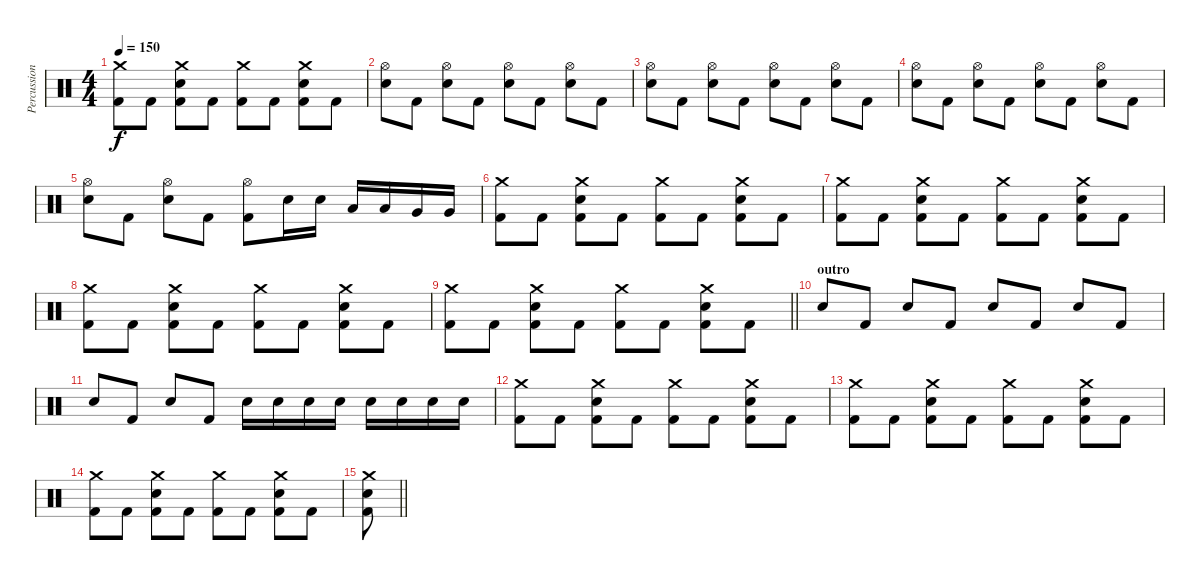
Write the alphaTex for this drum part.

\track ("Percussion" "Percussion") {instrument percussion}
\staff {score}
\articulation defaults
\ts (4 4)
\tempo 150
\clef neutral
\ks c
("Crash medium (hit)" "Kick (hit) 2").8{dy f} "Kick (hit) 2".8 ("Crash medium (hit)" "Snare (hit) 2" "Kick (hit) 2").8 "Kick (hit) 2".8 ("Crash medium (hit)" "Kick (hit) 2").8 "Kick (hit) 2".8 ("Crash medium (hit)" "Snare (hit) 2" "Kick (hit) 2").8 "Kick (hit) 2".8 |
("Hi-Hat (open)" "Snare (hit) 2").8 "Kick (hit) 2".8 ("Hi-Hat (open)" "Snare (hit) 2").8 "Kick (hit) 2".8 ("Hi-Hat (open)" "Snare (hit) 2").8 "Kick (hit) 2".8 ("Hi-Hat (open)" "Snare (hit) 2").8 "Kick (hit) 2".8 |
("Hi-Hat (open)" "Snare (hit) 2").8 "Kick (hit) 2".8 ("Hi-Hat (open)" "Snare (hit) 2").8 "Kick (hit) 2".8 ("Hi-Hat (open)" "Snare (hit) 2").8 "Kick (hit) 2".8 ("Hi-Hat (open)" "Snare (hit) 2").8 "Kick (hit) 2".8 |
("Hi-Hat (open)" "Snare (hit) 2").8 "Kick (hit) 2".8 ("Hi-Hat (open)" "Snare (hit) 2").8 "Kick (hit) 2".8 ("Hi-Hat (open)" "Snare (hit) 2").8 "Kick (hit) 2".8 ("Hi-Hat (open)" "Snare (hit) 2").8 "Kick (hit) 2".8 |
("Hi-Hat (open)" "Snare (hit) 2").8 "Kick (hit) 2".8 ("Hi-Hat (open)" "Snare (hit) 2").8 "Kick (hit) 2".8 ("Hi-Hat (open)" "Kick (hit) 2").8 "Snare (hit) 2".16 "Snare (hit) 2".16 "Low Tom (hit)".16 "Low Tom (hit)".16 "Very Low Tom (hit)".16 "Very Low Tom (hit)".16 |
("Crash medium (hit)" "Kick (hit) 2").8 "Kick (hit) 2".8 ("Crash medium (hit)" "Snare (hit) 2" "Kick (hit) 2").8 "Kick (hit) 2".8 ("Crash medium (hit)" "Kick (hit) 2").8 "Kick (hit) 2".8 ("Crash medium (hit)" "Snare (hit) 2" "Kick (hit) 2").8 "Kick (hit) 2".8 |
("Crash medium (hit)" "Kick (hit) 2").8 "Kick (hit) 2".8 ("Crash medium (hit)" "Snare (hit) 2" "Kick (hit) 2").8 "Kick (hit) 2".8 ("Crash medium (hit)" "Kick (hit) 2").8 "Kick (hit) 2".8 ("Crash medium (hit)" "Snare (hit) 2" "Kick (hit) 2").8 "Kick (hit) 2".8 |
("Crash medium (hit)" "Kick (hit) 2").8 "Kick (hit) 2".8 ("Crash medium (hit)" "Snare (hit) 2" "Kick (hit) 2").8 "Kick (hit) 2".8 ("Crash medium (hit)" "Kick (hit) 2").8 "Kick (hit) 2".8 ("Crash medium (hit)" "Snare (hit) 2" "Kick (hit) 2").8 "Kick (hit) 2".8 |
\barLineRight lightlight
("Crash medium (hit)" "Kick (hit) 2").8 "Kick (hit) 2".8 ("Crash medium (hit)" "Snare (hit) 2" "Kick (hit) 2").8 "Kick (hit) 2".8 ("Crash medium (hit)" "Kick (hit) 2").8 "Kick (hit) 2".8 ("Crash medium (hit)" "Snare (hit) 2" "Kick (hit) 2").8 "Kick (hit) 2".8 |
\section ("" "outro")
"Snare (hit) 2".8 "Kick (hit) 2".8 "Snare (hit) 2".8 "Kick (hit) 2".8 "Snare (hit) 2".8 "Kick (hit) 2".8 "Snare (hit) 2".8 "Kick (hit) 2".8 |
"Snare (hit) 2".8 "Kick (hit) 2".8 "Snare (hit) 2".8 "Kick (hit) 2".8 "Snare (hit) 2".16 "Snare (hit) 2".16 "Snare (hit) 2".16 "Snare (hit) 2".16 "Snare (hit) 2".16 "Snare (hit) 2".16 "Snare (hit) 2".16 "Snare (hit) 2".16 |
("Crash medium (hit)" "Kick (hit) 2").8 "Kick (hit) 2".8 ("Crash medium (hit)" "Snare (hit) 2" "Kick (hit) 2").8 "Kick (hit) 2".8 ("Crash medium (hit)" "Kick (hit) 2").8 "Kick (hit) 2".8 ("Crash medium (hit)" "Snare (hit) 2" "Kick (hit) 2").8 "Kick (hit) 2".8 |
("Crash medium (hit)" "Kick (hit) 2").8 "Kick (hit) 2".8 ("Crash medium (hit)" "Snare (hit) 2" "Kick (hit) 2").8 "Kick (hit) 2".8 ("Crash medium (hit)" "Kick (hit) 2").8 "Kick (hit) 2".8 ("Crash medium (hit)" "Snare (hit) 2" "Kick (hit) 2").8 "Kick (hit) 2".8 |
("Crash medium (hit)" "Kick (hit) 2").8 "Kick (hit) 2".8 ("Crash medium (hit)" "Snare (hit) 2" "Kick (hit) 2").8 "Kick (hit) 2".8 ("Crash medium (hit)" "Kick (hit) 2").8 "Kick (hit) 2".8 ("Crash medium (hit)" "Snare (hit) 2" "Kick (hit) 2").8 "Kick (hit) 2".8 |
\barLineRight lightlight
("Crash medium (hit)" "Snare (hit) 2" "Kick (hit) 2").8
